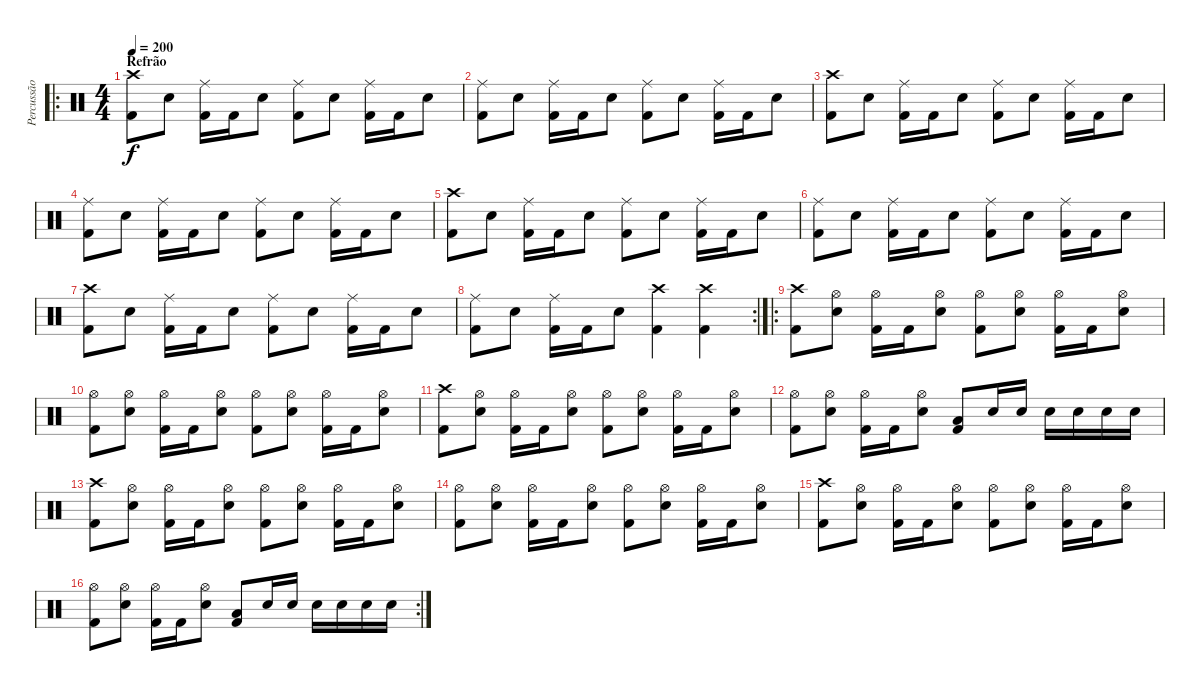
\track ("Percussão" "Percussão") {instrument percussion}
\staff {score}
\articulation defaults
\ro
\ts (4 4)
\section ("" "Refrão")
\tempo 200
\clef neutral
\ks c
("Crash high (hit)" "Kick (hit) 2").8{dy f} "Snare (hit) 2".8 ("Ride (middle)" "Kick (hit) 2").16 "Kick (hit) 2".16 "Snare (hit) 2".8 ("Ride (middle)" "Kick (hit) 2").8 "Snare (hit) 2".8 ("Ride (middle)" "Kick (hit) 2").16 "Kick (hit) 2".16 "Snare (hit) 2".8 |
("Ride (middle)" "Kick (hit) 2").8 "Snare (hit) 2".8 ("Ride (middle)" "Kick (hit) 2").16 "Kick (hit) 2".16 "Snare (hit) 2".8 ("Ride (middle)" "Kick (hit) 2").8 "Snare (hit) 2".8 ("Ride (middle)" "Kick (hit) 2").16 "Kick (hit) 2".16 "Snare (hit) 2".8 |
("Crash high (hit)" "Kick (hit) 2").8 "Snare (hit) 2".8 ("Ride (middle)" "Kick (hit) 2").16 "Kick (hit) 2".16 "Snare (hit) 2".8 ("Ride (middle)" "Kick (hit) 2").8 "Snare (hit) 2".8 ("Ride (middle)" "Kick (hit) 2").16 "Kick (hit) 2".16 "Snare (hit) 2".8 |
("Ride (middle)" "Kick (hit) 2").8 "Snare (hit) 2".8 ("Ride (middle)" "Kick (hit) 2").16 "Kick (hit) 2".16 "Snare (hit) 2".8 ("Ride (middle)" "Kick (hit) 2").8 "Snare (hit) 2".8 ("Ride (middle)" "Kick (hit) 2").16 "Kick (hit) 2".16 "Snare (hit) 2".8 |
("Crash high (hit)" "Kick (hit) 2").8 "Snare (hit) 2".8 ("Ride (middle)" "Kick (hit) 2").16 "Kick (hit) 2".16 "Snare (hit) 2".8 ("Ride (middle)" "Kick (hit) 2").8 "Snare (hit) 2".8 ("Ride (middle)" "Kick (hit) 2").16 "Kick (hit) 2".16 "Snare (hit) 2".8 |
("Ride (middle)" "Kick (hit) 2").8 "Snare (hit) 2".8 ("Ride (middle)" "Kick (hit) 2").16 "Kick (hit) 2".16 "Snare (hit) 2".8 ("Ride (middle)" "Kick (hit) 2").8 "Snare (hit) 2".8 ("Ride (middle)" "Kick (hit) 2").16 "Kick (hit) 2".16 "Snare (hit) 2".8 |
("Crash high (hit)" "Kick (hit) 2").8 "Snare (hit) 2".8 ("Ride (middle)" "Kick (hit) 2").16 "Kick (hit) 2".16 "Snare (hit) 2".8 ("Ride (middle)" "Kick (hit) 2").8 "Snare (hit) 2".8 ("Ride (middle)" "Kick (hit) 2").16 "Kick (hit) 2".16 "Snare (hit) 2".8 |
\rc 2
("Ride (middle)" "Kick (hit) 2").8 "Snare (hit) 2".8 ("Ride (middle)" "Kick (hit) 2").16 "Kick (hit) 2".16 "Snare (hit) 2".8 ("Crash high (hit)" "Kick (hit) 2").4 ("Crash high (hit)" "Kick (hit) 2").4 |
\ro
\section ("" "")
("Crash high (hit)" "Kick (hit) 2").8 ("Hi-Hat (open)" "Snare (hit) 2").8 ("Hi-Hat (open)" "Kick (hit) 2").16 "Kick (hit) 2".16 ("Hi-Hat (open)" "Snare (hit) 2").8 ("Hi-Hat (open)" "Kick (hit) 2").8 ("Hi-Hat (open)" "Snare (hit) 2").8 ("Hi-Hat (open)" "Kick (hit) 2").16 "Kick (hit) 2".16 ("Hi-Hat (open)" "Snare (hit) 2").8 |
("Hi-Hat (open)" "Kick (hit) 2").8 ("Hi-Hat (open)" "Snare (hit) 2").8 ("Hi-Hat (open)" "Kick (hit) 2").16 "Kick (hit) 2".16 ("Hi-Hat (open)" "Snare (hit) 2").8 ("Hi-Hat (open)" "Kick (hit) 2").8 ("Hi-Hat (open)" "Snare (hit) 2").8 ("Hi-Hat (open)" "Kick (hit) 2").16 "Kick (hit) 2".16 ("Hi-Hat (open)" "Snare (hit) 2").8 |
("Crash high (hit)" "Kick (hit) 2").8 ("Hi-Hat (open)" "Snare (hit) 2").8 ("Hi-Hat (open)" "Kick (hit) 2").16 "Kick (hit) 2".16 ("Hi-Hat (open)" "Snare (hit) 2").8 ("Hi-Hat (open)" "Kick (hit) 2").8 ("Hi-Hat (open)" "Snare (hit) 2").8 ("Hi-Hat (open)" "Kick (hit) 2").16 "Kick (hit) 2".16 ("Hi-Hat (open)" "Snare (hit) 2").8 |
("Hi-Hat (open)" "Kick (hit) 2").8 ("Hi-Hat (open)" "Snare (hit) 2").8 ("Hi-Hat (open)" "Kick (hit) 2").16 "Kick (hit) 2".16 ("Hi-Hat (open)" "Snare (hit) 2").8 ("Low Tom (hit)" "Kick (hit) 2").8 "Snare (hit) 2".16 "Snare (hit) 2".16 "Snare (hit) 2".16 "Snare (hit) 2".16 "Snare (hit) 2".16 "Snare (hit) 2".16 |
("Crash high (hit)" "Kick (hit) 2").8 ("Hi-Hat (open)" "Snare (hit) 2").8 ("Hi-Hat (open)" "Kick (hit) 2").16 "Kick (hit) 2".16 ("Hi-Hat (open)" "Snare (hit) 2").8 ("Hi-Hat (open)" "Kick (hit) 2").8 ("Hi-Hat (open)" "Snare (hit) 2").8 ("Hi-Hat (open)" "Kick (hit) 2").16 "Kick (hit) 2".16 ("Hi-Hat (open)" "Snare (hit) 2").8 |
("Hi-Hat (open)" "Kick (hit) 2").8 ("Hi-Hat (open)" "Snare (hit) 2").8 ("Hi-Hat (open)" "Kick (hit) 2").16 "Kick (hit) 2".16 ("Hi-Hat (open)" "Snare (hit) 2").8 ("Hi-Hat (open)" "Kick (hit) 2").8 ("Hi-Hat (open)" "Snare (hit) 2").8 ("Hi-Hat (open)" "Kick (hit) 2").16 "Kick (hit) 2".16 ("Hi-Hat (open)" "Snare (hit) 2").8 |
("Crash high (hit)" "Kick (hit) 2").8 ("Hi-Hat (open)" "Snare (hit) 2").8 ("Hi-Hat (open)" "Kick (hit) 2").16 "Kick (hit) 2".16 ("Hi-Hat (open)" "Snare (hit) 2").8 ("Hi-Hat (open)" "Kick (hit) 2").8 ("Hi-Hat (open)" "Snare (hit) 2").8 ("Hi-Hat (open)" "Kick (hit) 2").16 "Kick (hit) 2".16 ("Hi-Hat (open)" "Snare (hit) 2").8 |
\rc 2
("Hi-Hat (open)" "Kick (hit) 2").8 ("Hi-Hat (open)" "Snare (hit) 2").8 ("Hi-Hat (open)" "Kick (hit) 2").16 "Kick (hit) 2".16 ("Hi-Hat (open)" "Snare (hit) 2").8 ("Low Tom (hit)" "Kick (hit) 2").8 "Snare (hit) 2".16 "Snare (hit) 2".16 "Snare (hit) 2".16 "Snare (hit) 2".16 "Snare (hit) 2".16 "Snare (hit) 2".16
